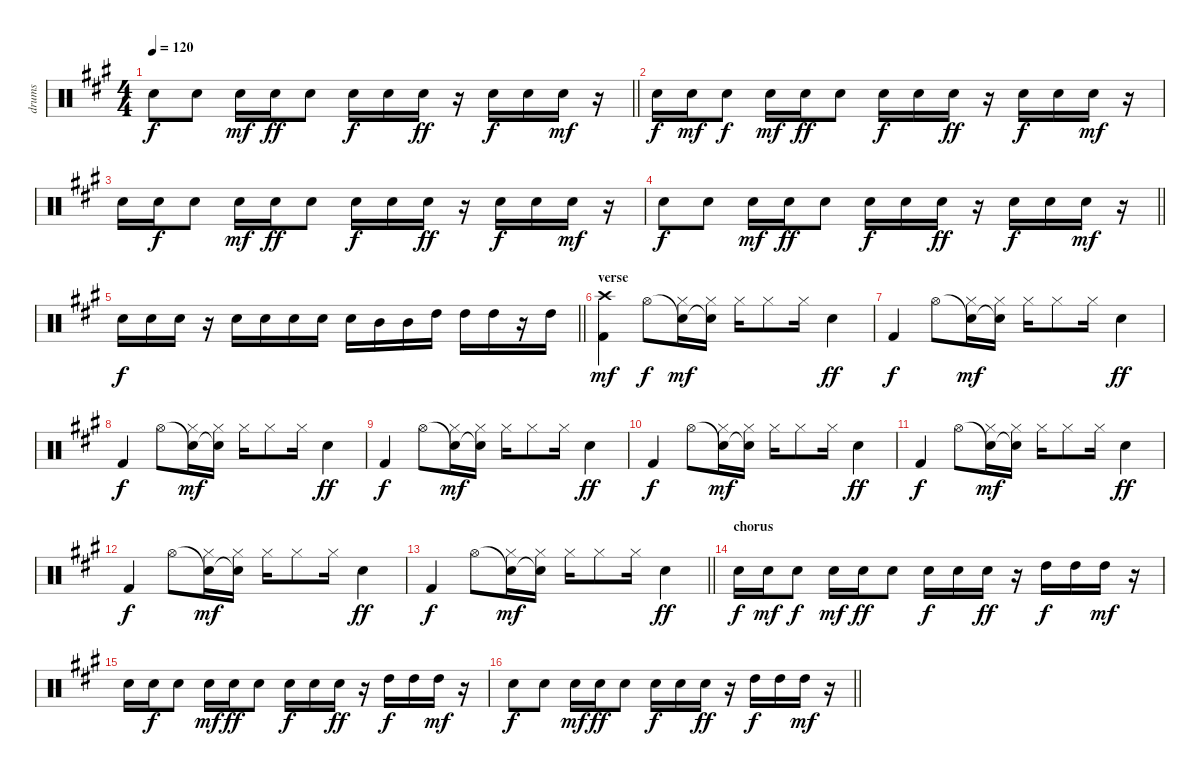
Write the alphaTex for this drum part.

\track ("drums" "drums") {instrument percussion}
\staff {score}
\articulation defaults
\ts (4 4)
\tempo 120
\clef neutral
\barLineRight lightlight
\ks a "Electric Snare (hit)".8{dy f} "Electric Snare (hit)".8 "Electric Snare (hit)".16{dy mf} "Electric Snare (hit)".16{dy ff} "Electric Snare (hit)".8 "Electric Snare (hit)".16{dy f} "Electric Snare (hit)".16 "Electric Snare (hit)".16{dy ff}
r.16 "Electric Snare (hit)".16{dy f} "Electric Snare (hit)".16 "Electric Snare (hit)".16{dy mf} r.16 |
"Electric Snare (hit)".16{dy f} "Electric Snare (hit)".16{dy mf} "Electric Snare (hit)".8{dy f} "Electric Snare (hit)".16{dy mf} "Electric Snare (hit)".16{dy ff} "Electric Snare (hit)".8 "Electric Snare (hit)".16{dy f} "Electric Snare (hit)".16 "Electric Snare (hit)".16{dy ff} r.16 "Electric Snare (hit)".16{dy f} "Electric Snare (hit)".16 "Electric Snare (hit)".16{dy mf} r.16 |
"Electric Snare (hit)".16 "Electric Snare (hit)".16{dy f} "Electric Snare (hit)".8 "Electric Snare (hit)".16{dy mf} "Electric Snare (hit)".16{dy ff} "Electric Snare (hit)".8 "Electric Snare (hit)".16{dy f} "Electric Snare (hit)".16 "Electric Snare (hit)".16{dy ff} r.16 "Electric Snare (hit)".16{dy f} "Electric Snare (hit)".16 "Electric Snare (hit)".16{dy mf} r.16 |
\barLineRight lightlight "Electric Snare (hit)".8{dy f} "Electric Snare (hit)".8 "Electric Snare (hit)".16{dy mf} "Electric Snare (hit)".16{dy ff} "Electric Snare (hit)".8 "Electric Snare (hit)".16{dy f} "Electric Snare (hit)".16 "Electric Snare (hit)".16{dy ff}
r.16 "Electric Snare (hit)".16{dy f} "Electric Snare (hit)".16 "Electric Snare (hit)".16{dy mf} r.16 |
\barLineRight lightlight "Electric Snare (hit)".16{dy f} "Electric Snare (hit)".16 "Electric Snare (hit)".16
r.16 "Electric Snare (hit)".16 "Electric Snare (hit)".16 "Electric Snare (hit)".16 "Electric Snare (hit)".16 "Electric Snare (hit)".16 "Mid Tom (hit)".16 "Mid Tom (hit)".16 "High Tom (hit)".16 "High Tom (hit)".16 "High Tom (hit)".16 r.16 "High Tom (hit)".16 |
\section ("" "verse")
("Crash high (hit)" "Kick (hit) 2").4{dy mf} "Hi-Hat (open)".8{dy f} ("Snare (hit)"{t} "Hi-Hat (closed)").16{dy mf} ("Snare (hit)"{t} "Hi-Hat (closed)").16 "Hi-Hat (closed)".16 "Hi-Hat (closed)".8 "Hi-Hat (closed)".16 "Electric Snare (hit)".4{dy ff} |
"Kick (hit) 2".4{dy f} "Hi-Hat (open)".8 ("Snare (hit)"{t} "Hi-Hat (closed)").16{dy mf} ("Snare (hit)"{t} "Hi-Hat (closed)").16 "Hi-Hat (closed)".16 "Hi-Hat (closed)".8 "Hi-Hat (closed)".16 "Electric Snare (hit)".4{dy ff} |
"Kick (hit) 2".4{dy f} "Hi-Hat (open)".8 ("Snare (hit)"{t} "Hi-Hat (closed)").16{dy mf} ("Snare (hit)"{t} "Hi-Hat (closed)").16 "Hi-Hat (closed)".16 "Hi-Hat (closed)".8 "Hi-Hat (closed)".16 "Electric Snare (hit)".4{dy ff} |
"Kick (hit) 2".4{dy f} "Hi-Hat (open)".8 ("Snare (hit)"{t} "Hi-Hat (closed)").16{dy mf} ("Snare (hit)"{t} "Hi-Hat (closed)").16 "Hi-Hat (closed)".16 "Hi-Hat (closed)".8 "Hi-Hat (closed)".16 "Electric Snare (hit)".4{dy ff} |
"Kick (hit) 2".4{dy f} "Hi-Hat (open)".8 ("Snare (hit)"{t} "Hi-Hat (closed)").16{dy mf} ("Snare (hit)"{t} "Hi-Hat (closed)").16 "Hi-Hat (closed)".16 "Hi-Hat (closed)".8 "Hi-Hat (closed)".16 "Electric Snare (hit)".4{dy ff} |
"Kick (hit) 2".4{dy f} "Hi-Hat (open)".8 ("Snare (hit)"{t} "Hi-Hat (closed)").16{dy mf} ("Snare (hit)"{t} "Hi-Hat (closed)").16 "Hi-Hat (closed)".16 "Hi-Hat (closed)".8 "Hi-Hat (closed)".16 "Electric Snare (hit)".4{dy ff} |
"Kick (hit) 2".4{dy f} "Hi-Hat (open)".8 ("Snare (hit)"{t} "Hi-Hat (closed)").16{dy mf} ("Snare (hit)"{t} "Hi-Hat (closed)").16 "Hi-Hat (closed)".16 "Hi-Hat (closed)".8 "Hi-Hat (closed)".16 "Electric Snare (hit)".4{dy ff} |
\barLineRight lightlight "Kick (hit) 2".4{dy f} "Hi-Hat (open)".8
("Snare (hit)"{t} "Hi-Hat (closed)").16{dy mf} ("Snare (hit)"{t} "Hi-Hat (closed)").16 "Hi-Hat (closed)".16 "Hi-Hat (closed)".8 "Hi-Hat (closed)".16 "Electric Snare (hit)".4{dy ff} |
\section ("" "chorus")
"Electric Snare (hit)".16{dy f} "Electric Snare (hit)".16{dy mf} "Electric Snare (hit)".8{dy f} "Electric Snare (hit)".16{dy mf} "Electric Snare (hit)".16{dy ff} "Electric Snare (hit)".8 "Electric Snare (hit)".16{dy f} "Electric Snare (hit)".16 "Electric Snare (hit)".16{dy ff} r.16 "High Tom (hit)".16{dy f} "High Tom (hit)".16 "High Tom (hit)".16{dy mf} r.16 |
"Electric Snare (hit)".16 "Electric Snare (hit)".16{dy f} "Electric Snare (hit)".8 "Electric Snare (hit)".16{dy mf} "Electric Snare (hit)".16{dy ff} "Electric Snare (hit)".8 "Electric Snare (hit)".16{dy f} "Electric Snare (hit)".16 "Electric Snare (hit)".16{dy ff} r.16 "High Tom (hit)".16{dy f} "High Tom (hit)".16 "High Tom (hit)".16{dy mf} r.16 |
\barLineRight lightlight "Electric Snare (hit)".8{dy f} "Electric Snare (hit)".8 "Electric Snare (hit)".16{dy mf} "Electric Snare (hit)".16{dy ff} "Electric Snare (hit)".8 "Electric Snare (hit)".16{dy f} "Electric Snare (hit)".16 "Electric Snare (hit)".16{dy ff}
r.16 "High Tom (hit)".16{dy f} "High Tom (hit)".16 "High Tom (hit)".16{dy mf} r.16
